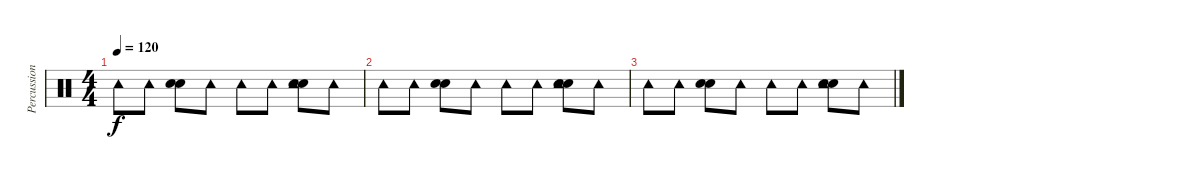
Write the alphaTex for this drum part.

\track ("Percussion" "Percussion") {instrument percussion}
\staff {score}
\articulation defaults
\ts (4 4)
\tempo 120
\clef neutral
\ks c "Tambourine (hit)".8{dy f} "Tambourine (hit)".8
("Snare (hit) 2" "Snare (hit) 2").8 "Tambourine (hit)".8 "Tambourine (hit)".8 "Tambourine (hit)".8 ("Snare (hit) 2" "Snare (hit) 2" "Tambourine (hit)").8 "Tambourine (hit)".8 |
"Tambourine (hit)".8 "Tambourine (hit)".8 ("Snare (hit) 2" "Snare (hit) 2").8 "Tambourine (hit)".8 "Tambourine (hit)".8 "Tambourine (hit)".8 ("Snare (hit) 2" "Snare (hit) 2" "Tambourine (hit)").8 "Tambourine (hit)".8 |
"Tambourine (hit)".8 "Tambourine (hit)".8 ("Snare (hit) 2" "Snare (hit) 2").8 "Tambourine (hit)".8 "Tambourine (hit)".8 "Tambourine (hit)".8 ("Snare (hit) 2" "Snare (hit) 2" "Tambourine (hit)").8 "Tambourine (hit)".8
